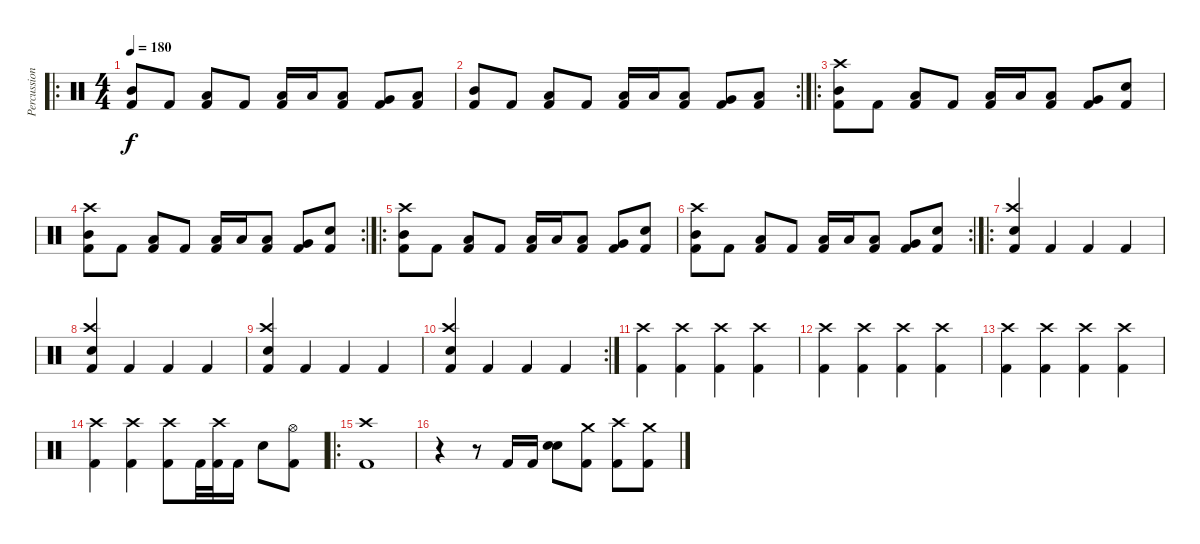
\track ("Percussions" "Percussion") {instrument percussion}
\staff {score}
\articulation defaults
\ro
\ts (4 4)
\tempo 180
\clef neutral
\ks c
("Mid Tom (hit)" "Kick (hit) 2").8{dy f} "Kick (hit) 2".8 ("Low Tom (hit)" "Kick (hit) 2").8 "Kick (hit) 2".8 ("Low Tom (hit)" "Kick (hit) 2").16 "Low Tom (hit)".16 ("Low Tom (hit)" "Kick (hit) 2").8 ("Very Low Tom (hit)" "Kick (hit) 2").8 ("Low Floor Tom (hit)" "Kick (hit) 2").8 |
\rc 2
("Mid Tom (hit)" "Kick (hit) 2").8 "Kick (hit) 2".8 ("Low Tom (hit)" "Kick (hit) 2").8 "Kick (hit) 2".8 ("Low Tom (hit)" "Kick (hit) 2").16 "Low Tom (hit)".16 ("Low Tom (hit)" "Kick (hit) 2").8 ("Very Low Tom (hit)" "Kick (hit) 2").8 ("Low Floor Tom (hit)" "Kick (hit) 2").8 |
\ro
("Crash high (hit)" "Mid Tom (hit)" "Kick (hit) 2").8 "Kick (hit) 2".8 ("Low Tom (hit)" "Kick (hit) 2").8 "Kick (hit) 2".8 ("Low Tom (hit)" "Kick (hit) 2").16 "Low Tom (hit)".16 ("Low Tom (hit)" "Kick (hit) 2").8 ("Very Low Tom (hit)" "Kick (hit) 2").8 ("Snare (hit) 2" "Kick (hit) 2").8 |
\rc 2
("Crash high (hit)" "Mid Tom (hit)" "Kick (hit) 2").8 "Kick (hit) 2".8 ("Low Tom (hit)" "Kick (hit) 2").8 "Kick (hit) 2".8 ("Low Tom (hit)" "Kick (hit) 2").16 "Low Tom (hit)".16 ("Low Tom (hit)" "Kick (hit) 2").8 ("Very Low Tom (hit)" "Kick (hit) 2").8 ("Snare (hit) 2" "Kick (hit) 2").8 |
\ro
("Crash high (hit)" "Mid Tom (hit)" "Kick (hit) 2").8 "Kick (hit) 2".8 ("Low Tom (hit)" "Kick (hit) 2").8 "Kick (hit) 2".8 ("Low Tom (hit)" "Kick (hit) 2").16 "Low Tom (hit)".16 ("Low Tom (hit)" "Kick (hit) 2").8 ("Very Low Tom (hit)" "Kick (hit) 2").8 ("Snare (hit) 2" "Kick (hit) 2").8 |
\rc 2
("Crash high (hit)" "Mid Tom (hit)" "Kick (hit) 2").8 "Kick (hit) 2".8 ("Low Tom (hit)" "Kick (hit) 2").8 "Kick (hit) 2".8 ("Low Tom (hit)" "Kick (hit) 2").16 "Low Tom (hit)".16 ("Low Tom (hit)" "Kick (hit) 2").8 ("Very Low Tom (hit)" "Kick (hit) 2").8 ("Snare (hit) 2" "Kick (hit) 2").8 |
\ro
("Crash high (hit)" "Snare (hit) 2" "Kick (hit) 2").4 "Kick (hit) 2".4 "Kick (hit) 2".4 "Kick (hit) 2".4 |
("Crash high (hit)" "Snare (hit) 2" "Kick (hit) 2").4 "Kick (hit) 2".4 "Kick (hit) 2".4 "Kick (hit) 2".4 |
("Crash high (hit)" "Snare (hit) 2" "Kick (hit) 2").4 "Kick (hit) 2".4 "Kick (hit) 2".4 "Kick (hit) 2".4 |
\rc 2
("Crash high (hit)" "Snare (hit) 2" "Kick (hit) 2").4 "Kick (hit) 2".4 "Kick (hit) 2".4 "Kick (hit) 2".4 |
("Crash high (hit)" "Kick (hit) 2").4 ("Crash high (hit)" "Kick (hit) 2").4 ("Crash high (hit)" "Kick (hit) 2").4 ("Crash high (hit)" "Kick (hit) 2").4 |
("Crash high (hit)" "Kick (hit) 2").4 ("Crash high (hit)" "Kick (hit) 2").4 ("Crash high (hit)" "Kick (hit) 2").4 ("Crash high (hit)" "Kick (hit) 2").4 |
("Crash high (hit)" "Kick (hit) 2").4 ("Crash high (hit)" "Kick (hit) 2").4 ("Crash high (hit)" "Kick (hit) 2").4 ("Crash high (hit)" "Kick (hit) 2").4 |
("Crash high (hit)" "Kick (hit) 2").4 ("Crash high (hit)" "Kick (hit) 2").4 ("Crash high (hit)" "Kick (hit) 2").8 "Kick (hit) 2".32 ("Crash high (hit)" "Kick (hit) 2").32 "Kick (hit) 2".16 "Snare (hit) 2".8 ("Hi-Hat (open)" "Kick (hit) 2").8 |
\ro
("Crash high (hit)" "Kick (hit) 2").1 |
r.4 r.8 "Kick (hit) 2".16 "Kick (hit) 2".16 ("Snare (hit) 2" "Snare (hit) 2").8{bd 240} ("Crash medium (hit)" "Kick (hit) 2").8 ("Crash high (hit)" "Kick (hit) 2").8 ("Crash medium (hit)" "Kick (hit) 2").8
